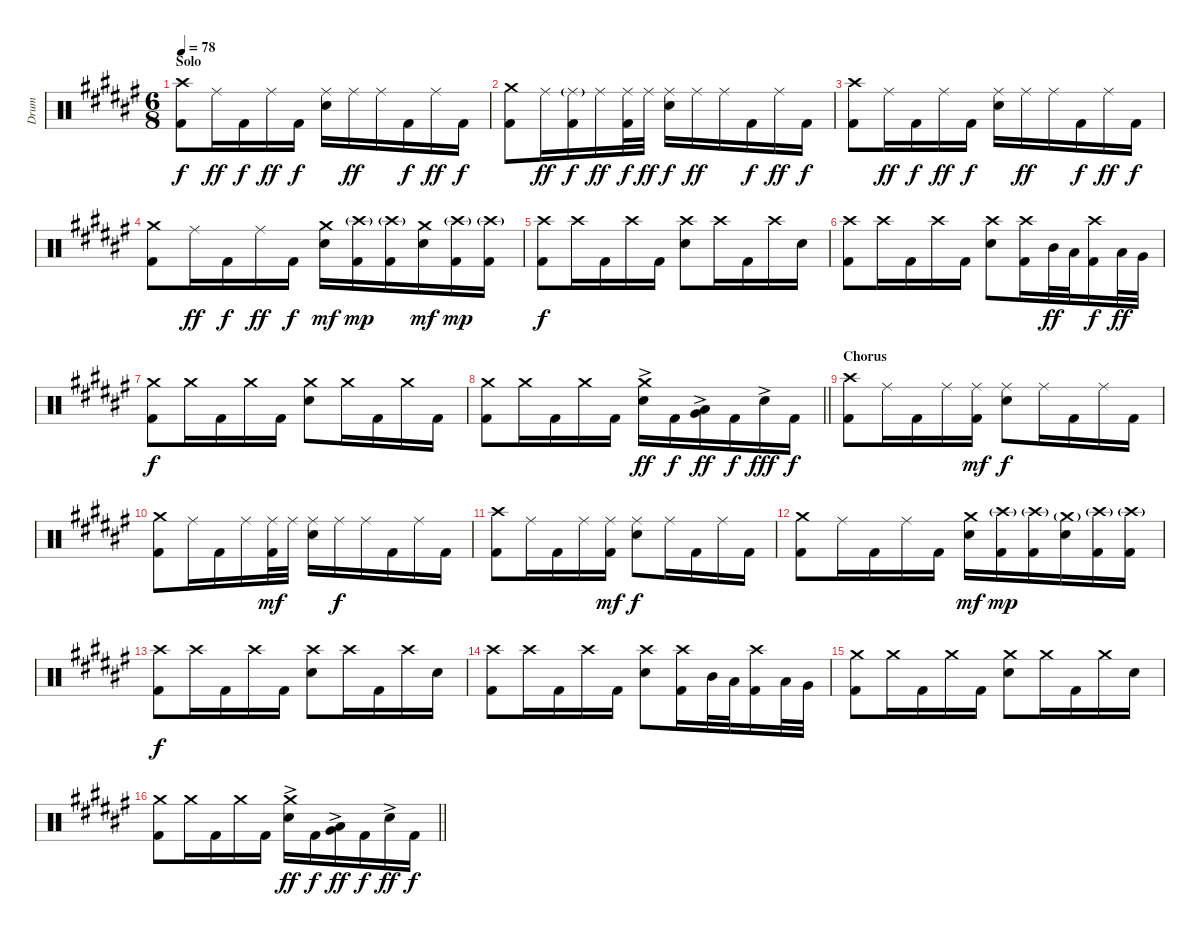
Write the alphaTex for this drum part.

\track ("Drum" "Drum") {instrument percussion}
\staff {score}
\articulation defaults
\ts (6 8)
\section ("" "Solo")
\tempo 78
\clef neutral
\ks d#minor
("Crash high (hit)" "Kick (hit) 2").8{dy f} "Ride (middle)".16{dy ff} "Kick (hit) 2".16{dy f} "Ride (middle)".16{dy ff} "Kick (hit) 2".16{dy f} ("Ride (middle)" "Electric Snare (hit)").16 "Ride (middle)".16{dy ff} "Ride (middle)".16 "Kick (hit) 2".16{dy f} "Ride (middle)".16{dy ff} "Kick (hit) 2".16{dy f} |
("Crash medium (hit)" "Kick (hit) 2").8 "Ride (middle)".16{dy ff} ("Ride (middle)"{g} "Kick (hit) 2").16{dy f} "Ride (middle)".16{dy ff} ("Ride (middle)" "Kick (hit) 2").32{dy f} "Ride (middle)".32{dy ff} ("Ride (middle)" "Electric Snare (hit)").16{dy f} "Ride (middle)".16{dy ff} "Ride (middle)".16 "Kick (hit) 2".16{dy f} "Ride (middle)".16{dy ff} "Kick (hit) 2".16{dy f} |
("Crash high (hit)" "Kick (hit) 2").8 "Ride (middle)".16{dy ff} "Kick (hit) 2".16{dy f} "Ride (middle)".16{dy ff} "Kick (hit) 2".16{dy f} ("Ride (middle)" "Electric Snare (hit)").16 "Ride (middle)".16{dy ff} "Ride (middle)".16 "Kick (hit) 2".16{dy f} "Ride (middle)".16{dy ff} "Kick (hit) 2".16{dy f} |
("Crash medium (hit)" "Kick (hit) 2").8 "Ride (middle)".16{dy ff} "Kick (hit) 2".16{dy f} "Ride (middle)".16{dy ff} "Kick (hit) 2".16{dy f} ("Crash medium (hit)" "Electric Snare (hit)").16{dy mf} ("Crash high (hit)"{g} "Kick (hit) 2").16{dy mp} ("Crash high (hit)"{g} "Kick (hit) 2").16 ("Crash medium (hit)" "Electric Snare (hit)").16{dy mf} ("Crash high (hit)"{g} "Kick (hit) 2").16{dy mp} ("Crash high (hit)"{g} "Kick (hit) 2").16 |
("Crash high (hit)" "Kick (hit) 2").8{dy f} "Crash high (hit)".16 "Kick (hit) 2".16 "Crash high (hit)".16 "Kick (hit) 2".16 ("Crash high (hit)" "Electric Snare (hit)").8 "Crash high (hit)".16 "Kick (hit) 2".16 "Crash high (hit)".16 "Electric Snare (hit)".16 |
("Crash high (hit)" "Kick (hit) 2").8 "Crash high (hit)".16 "Kick (hit) 2".16 "Crash high (hit)".16 "Kick (hit) 2".16 ("Crash high (hit)" "Electric Snare (hit)").8 ("Crash high (hit)" "Kick (hit) 2").16 "Mid Tom (hit)".32{dy ff} "Low Tom (hit)".32 ("Crash high (hit)" "Kick (hit) 2").16{dy f} "Low Tom (hit)".32{dy ff} "Very Low Tom (hit)".32 |
("Crash medium (hit)" "Kick (hit) 2").8{dy f} "Crash medium (hit)".16 "Kick (hit) 2".16 "Crash medium (hit)".16 "Kick (hit) 2".16 ("Crash medium (hit)" "Electric Snare (hit)").8 "Crash medium (hit)".16 "Kick (hit) 2".16 "Crash medium (hit)".16 "Kick (hit) 2".16 |
\barLineRight lightlight
("Crash medium (hit)" "Kick (hit) 2").8 "Crash medium (hit)".16 "Kick (hit) 2".16 "Crash medium (hit)".16 "Kick (hit) 2".16 ("Crash medium (hit)" "Electric Snare (hit)"{ac}).16{dy ff} "Kick (hit) 2".16{dy f} ("Low Tom (hit)" "Very Low Tom (hit)"{ac}).16{dy ff} "Kick (hit) 2".16{dy f} "Electric Snare (hit)"{ac}.16{dy fff} "Kick (hit) 2".16{dy f} |
\section ("" "Chorus")
("Crash high (hit)" "Kick (hit) 2").8 "Ride (middle)".16 "Kick (hit) 2".16 "Ride (middle)".16 ("Ride (middle)" "Kick (hit) 2").16{dy mf} ("Ride (middle)" "Electric Snare (hit)").8{dy f} "Ride (middle)".16 "Kick (hit) 2".16 "Ride (middle)".16 "Kick (hit) 2".16 |
("Crash medium (hit)" "Kick (hit) 2").8 "Ride (middle)".16 "Kick (hit) 2".16 "Ride (middle)".16 ("Ride (middle)" "Kick (hit) 2").32{dy mf} "Ride (middle)".32 ("Ride (middle)" "Electric Snare (hit)").16 "Ride (middle)".16{dy f} "Ride (middle)".16 "Kick (hit) 2".16 "Ride (middle)".16 "Kick (hit) 2".16 |
("Crash high (hit)" "Kick (hit) 2").8 "Ride (middle)".16 "Kick (hit) 2".16 "Ride (middle)".16 ("Ride (middle)" "Kick (hit) 2").16{dy mf} ("Ride (middle)" "Electric Snare (hit)").8{dy f} "Ride (middle)".16 "Kick (hit) 2".16 "Ride (middle)".16 "Kick (hit) 2".16 |
("Crash medium (hit)" "Kick (hit) 2").8 "Ride (middle)".16 "Kick (hit) 2".16 "Ride (middle)".16 "Kick (hit) 2".16 ("Crash medium (hit)" "Electric Snare (hit)").16{dy mf} ("Crash high (hit)"{g} "Kick (hit) 2").16{dy mp} ("Crash high (hit)"{g} "Kick (hit) 2").16 ("Crash medium (hit)"{g} "Electric Snare (hit)").16 ("Crash high (hit)"{g} "Kick (hit) 2").16 ("Crash high (hit)"{g} "Kick (hit) 2").16 |
("Crash high (hit)" "Kick (hit) 2").8{dy f} "Crash high (hit)".16 "Kick (hit) 2".16 "Crash high (hit)".16 "Kick (hit) 2".16 ("Crash high (hit)" "Electric Snare (hit)").8 "Crash high (hit)".16 "Kick (hit) 2".16 "Crash high (hit)".16 "Electric Snare (hit)".16 |
("Crash high (hit)" "Kick (hit) 2").8 "Crash high (hit)".16 "Kick (hit) 2".16 "Crash high (hit)".16 "Kick (hit) 2".16 ("Crash high (hit)" "Electric Snare (hit)").8 ("Crash high (hit)" "Kick (hit) 2").16 "Mid Tom (hit)".32 "Low Tom (hit)".32 ("Crash high (hit)" "Kick (hit) 2").16 "Low Tom (hit)".32 "Very Low Tom (hit)".32 |
("Crash medium (hit)" "Kick (hit) 2").8 "Crash medium (hit)".16 "Kick (hit) 2".16 "Crash medium (hit)".16 "Kick (hit) 2".16 ("Crash medium (hit)" "Electric Snare (hit)").8 "Crash medium (hit)".16 "Kick (hit) 2".16 "Crash medium (hit)".16 "Electric Snare (hit)".16 |
\barLineRight lightlight
("Crash medium (hit)" "Kick (hit) 2").8 "Crash medium (hit)".16 "Kick (hit) 2".16 "Crash medium (hit)".16 "Kick (hit) 2".16 ("Crash medium (hit)" "Electric Snare (hit)"{ac}).16{dy ff} "Kick (hit) 2".16{dy f} ("Low Tom (hit)" "Very Low Tom (hit)"{ac}).16{dy ff} "Kick (hit) 2".16{dy f} "Electric Snare (hit)"{ac}.16{dy ff} "Kick (hit) 2".16{dy f}
